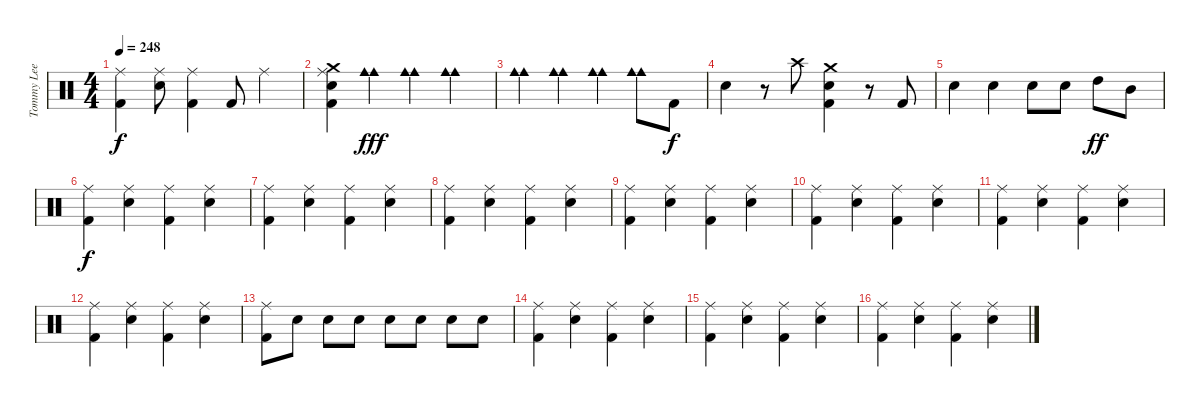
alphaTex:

\track ("Tommy Lee" "Tommy Lee") {instrument percussion}
\staff {score}
\articulation defaults
\ts (4 4)
\tempo 248
\clef neutral
\ks c
("Ride (middle)" "Kick (hit) 2").4{dy f} ("Ride (middle)" "Electric Snare (hit)").8 ("Ride (middle)" "Kick (hit) 2").4 "Kick (hit) 2".8 "Ride (middle)".4 |
("Crash medium (hit)" "Ride (middle)" "Electric Snare (hit)" "Kick (hit) 2").4 ("Cowbell medium (hit)" "Cowbell medium (hit)").4{dy fff} ("Cowbell medium (hit)" "Cowbell medium (hit)").4 ("Cowbell medium (hit)" "Cowbell medium (hit)").4 |
("Cowbell medium (hit)" "Cowbell medium (hit)").4 ("Cowbell medium (hit)" "Cowbell medium (hit)").4 ("Cowbell medium (hit)" "Cowbell medium (hit)").4 ("Cowbell medium (hit)" "Cowbell medium (hit)").8 "Kick (hit) 2".8{dy f} |
"Electric Snare (hit)".4 r.8 "Crash high (hit)".8 ("Crash medium (hit)" "Electric Snare (hit)" "Kick (hit) 2").4 r.8 "Kick (hit) 2".8 |
"Electric Snare (hit)".4 "Electric Snare (hit)".4 "Electric Snare (hit)".8 "Electric Snare (hit)".8 "High Tom (hit)".8{dy ff} "Mid Tom (hit)".8 |
("Ride (middle)" "Kick (hit) 2").4{dy f} ("Ride (middle)" "Electric Snare (hit)").4 ("Ride (middle)" "Kick (hit) 2").4 ("Ride (middle)" "Electric Snare (hit)").4 |
("Ride (middle)" "Kick (hit) 2").4 ("Ride (middle)" "Electric Snare (hit)").4 ("Ride (middle)" "Kick (hit) 2").4 ("Ride (middle)" "Electric Snare (hit)").4 |
("Ride (middle)" "Kick (hit) 2").4 ("Ride (middle)" "Electric Snare (hit)").4 ("Ride (middle)" "Kick (hit) 2").4 ("Ride (middle)" "Electric Snare (hit)").4 |
("Ride (middle)" "Kick (hit) 2").4 ("Ride (middle)" "Electric Snare (hit)").4 ("Ride (middle)" "Kick (hit) 2").4 ("Ride (middle)" "Electric Snare (hit)").4 |
("Ride (middle)" "Kick (hit) 2").4 ("Ride (middle)" "Electric Snare (hit)").4 ("Ride (middle)" "Kick (hit) 2").4 ("Ride (middle)" "Electric Snare (hit)").4 |
("Ride (middle)" "Kick (hit) 2").4 ("Ride (middle)" "Electric Snare (hit)").4 ("Ride (middle)" "Kick (hit) 2").4 ("Ride (middle)" "Electric Snare (hit)").4 |
("Ride (middle)" "Kick (hit) 2").4 ("Ride (middle)" "Electric Snare (hit)").4 ("Ride (middle)" "Kick (hit) 2").4 ("Ride (middle)" "Electric Snare (hit)").4 |
("Ride (middle)" "Kick (hit) 2").8 "Electric Snare (hit)".8 "Electric Snare (hit)".8 "Electric Snare (hit)".8 "Electric Snare (hit)".8 "Electric Snare (hit)".8 "Electric Snare (hit)".8 "Electric Snare (hit)".8 |
("Ride (middle)" "Kick (hit) 2").4 ("Ride (middle)" "Electric Snare (hit)").4 ("Ride (middle)" "Kick (hit) 2").4 ("Ride (middle)" "Electric Snare (hit)").4 |
("Ride (middle)" "Kick (hit) 2").4 ("Ride (middle)" "Electric Snare (hit)").4 ("Ride (middle)" "Kick (hit) 2").4 ("Ride (middle)" "Electric Snare (hit)").4 |
("Ride (middle)" "Kick (hit) 2").4 ("Ride (middle)" "Electric Snare (hit)").4 ("Ride (middle)" "Kick (hit) 2").4 ("Ride (middle)" "Electric Snare (hit)").4
